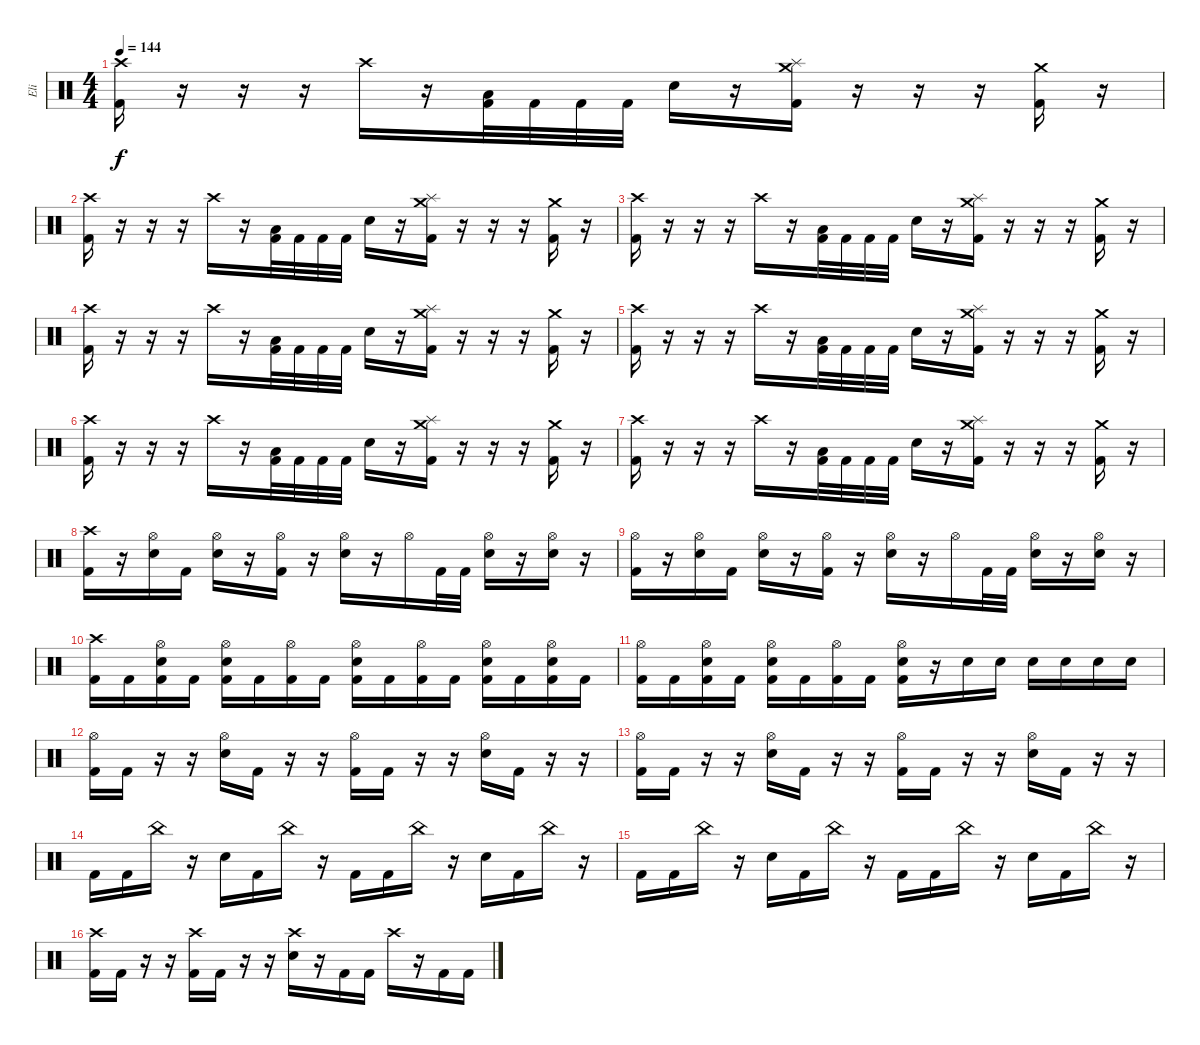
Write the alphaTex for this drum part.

\track ("Eli" "Eli") {instrument percussion}
\staff {score}
\articulation defaults
\ts (4 4)
\tempo 144
\clef neutral
\ks c
("Crash high (hit)" "Kick (hit) 2").16{dy f} r.16 r.16 r.16 "Crash high (hit)".16 r.16 ("Low Floor Tom (hit)" "Kick (hit) 2").32 "Kick (hit) 2".32 "Kick (hit) 2".32 "Kick (hit) 2".32 "Snare (hit) 2".16 r.16 ("Crash medium (hit)" "Splash (hit)" "Kick (hit) 2").16 r.16 r.16 r.16 ("Crash medium (hit)" "Kick (hit) 2").16 r.16 |
("Crash high (hit)" "Kick (hit) 2").16 r.16 r.16 r.16 "Crash high (hit)".16 r.16 ("Low Floor Tom (hit)" "Kick (hit) 2").32 "Kick (hit) 2".32 "Kick (hit) 2".32 "Kick (hit) 2".32 "Snare (hit) 2".16 r.16 ("Crash medium (hit)" "Splash (hit)" "Kick (hit) 2").16 r.16 r.16 r.16 ("Crash medium (hit)" "Kick (hit) 2").16 r.16 |
("Crash high (hit)" "Kick (hit) 2").16 r.16 r.16 r.16 "Crash high (hit)".16 r.16 ("Low Floor Tom (hit)" "Kick (hit) 2").32 "Kick (hit) 2".32 "Kick (hit) 2".32 "Kick (hit) 2".32 "Snare (hit) 2".16 r.16 ("Crash medium (hit)" "Splash (hit)" "Kick (hit) 2").16 r.16 r.16 r.16 ("Crash medium (hit)" "Kick (hit) 2").16 r.16 |
("Crash high (hit)" "Kick (hit) 2").16 r.16 r.16 r.16 "Crash high (hit)".16 r.16 ("Low Floor Tom (hit)" "Kick (hit) 2").32 "Kick (hit) 2".32 "Kick (hit) 2".32 "Kick (hit) 2".32 "Snare (hit) 2".16 r.16 ("Crash medium (hit)" "Splash (hit)" "Kick (hit) 2").16 r.16 r.16 r.16 ("Crash medium (hit)" "Kick (hit) 2").16 r.16 |
("Crash high (hit)" "Kick (hit) 2").16 r.16 r.16 r.16 "Crash high (hit)".16 r.16 ("Low Floor Tom (hit)" "Kick (hit) 2").32 "Kick (hit) 2".32 "Kick (hit) 2".32 "Kick (hit) 2".32 "Snare (hit) 2".16 r.16 ("Crash medium (hit)" "Splash (hit)" "Kick (hit) 2").16 r.16 r.16 r.16 ("Crash medium (hit)" "Kick (hit) 2").16 r.16 |
("Crash high (hit)" "Kick (hit) 2").16 r.16 r.16 r.16 "Crash high (hit)".16 r.16 ("Low Floor Tom (hit)" "Kick (hit) 2").32 "Kick (hit) 2".32 "Kick (hit) 2".32 "Kick (hit) 2".32 "Snare (hit) 2".16 r.16 ("Crash medium (hit)" "Splash (hit)" "Kick (hit) 2").16 r.16 r.16 r.16 ("Crash medium (hit)" "Kick (hit) 2").16 r.16 |
("Crash high (hit)" "Kick (hit) 2").16 r.16 r.16 r.16 "Crash high (hit)".16 r.16 ("Low Floor Tom (hit)" "Kick (hit) 2").32 "Kick (hit) 2".32 "Kick (hit) 2".32 "Kick (hit) 2".32 "Snare (hit) 2".16 r.16 ("Crash medium (hit)" "Splash (hit)" "Kick (hit) 2").16 r.16 r.16 r.16 ("Crash medium (hit)" "Kick (hit) 2").16 r.16 |
("Crash high (hit)" "Kick (hit) 2").16 r.16 ("Hi-Hat (open)" "Snare (hit) 2").16 "Kick (hit) 2".16 ("Hi-Hat (open)" "Snare (hit) 2").16 r.16 ("Hi-Hat (open)" "Kick (hit) 2").16 r.16 ("Hi-Hat (open)" "Snare (hit) 2").16 r.16 "Hi-Hat (open)".16 "Kick (hit) 2".32 "Kick (hit) 2".32 ("Hi-Hat (open)" "Snare (hit) 2").16 r.16 ("Hi-Hat (open)" "Snare (hit) 2").16 r.16 |
("Hi-Hat (open)" "Kick (hit) 2").16 r.16 ("Hi-Hat (open)" "Snare (hit) 2").16 "Kick (hit) 2".16 ("Hi-Hat (open)" "Snare (hit) 2").16 r.16 ("Hi-Hat (open)" "Kick (hit) 2").16 r.16 ("Hi-Hat (open)" "Snare (hit) 2").16 r.16 "Hi-Hat (open)".16 "Kick (hit) 2".32 "Kick (hit) 2".32 ("Hi-Hat (open)" "Snare (hit) 2").16 r.16 ("Hi-Hat (open)" "Snare (hit) 2").16 r.16 |
("Crash high (hit)" "Kick (hit) 2").16 "Kick (hit) 2".16 ("Hi-Hat (open)" "Snare (hit) 2" "Kick (hit) 2").16 "Kick (hit) 2".16 ("Hi-Hat (open)" "Snare (hit) 2" "Kick (hit) 2").16 "Kick (hit) 2".16 ("Hi-Hat (open)" "Kick (hit) 2").16 "Kick (hit) 2".16 ("Hi-Hat (open)" "Snare (hit) 2" "Kick (hit) 2").16 "Kick (hit) 2".16 ("Hi-Hat (open)" "Kick (hit) 2").16 "Kick (hit) 2".16 ("Hi-Hat (open)" "Snare (hit) 2" "Kick (hit) 2").16 "Kick (hit) 2".16 ("Hi-Hat (open)" "Snare (hit) 2" "Kick (hit) 2").16 "Kick (hit) 2".16 |
("Hi-Hat (open)" "Kick (hit) 2").16 "Kick (hit) 2".16 ("Hi-Hat (open)" "Snare (hit) 2" "Kick (hit) 2").16 "Kick (hit) 2".16 ("Hi-Hat (open)" "Snare (hit) 2" "Kick (hit) 2").16 "Kick (hit) 2".16 ("Hi-Hat (open)" "Kick (hit) 2").16 "Kick (hit) 2".16 ("Hi-Hat (open)" "Snare (hit) 2" "Kick (hit) 2").16 r.16 "Snare (hit) 2".16 "Snare (hit) 2".16 "Snare (hit) 2".16 "Snare (hit) 2".16 "Snare (hit) 2".16 "Snare (hit) 2".16 |
("Hi-Hat (open)" "Kick (hit) 2").16 "Kick (hit) 2".16 r.16 r.16 ("Hi-Hat (open)" "Snare (hit) 2").16 "Kick (hit) 2".16 r.16 r.16 ("Hi-Hat (open)" "Kick (hit) 2").16 "Kick (hit) 2".16 r.16 r.16 ("Hi-Hat (open)" "Snare (hit) 2").16 "Kick (hit) 2".16 r.16 r.16 |
("Hi-Hat (open)" "Kick (hit) 2").16 "Kick (hit) 2".16 r.16 r.16 ("Hi-Hat (open)" "Snare (hit) 2").16 "Kick (hit) 2".16 r.16 r.16 ("Hi-Hat (open)" "Kick (hit) 2").16 "Kick (hit) 2".16 r.16 r.16 ("Hi-Hat (open)" "Snare (hit) 2").16 "Kick (hit) 2".16 r.16 r.16 |
"Kick (hit) 2".16 "Kick (hit) 2".16 "China (hit)".16 r.16 "Snare (hit) 2".16 "Kick (hit) 2".16 "China (hit)".16 r.16 "Kick (hit) 2".16 "Kick (hit) 2".16 "China (hit)".16 r.16 "Snare (hit) 2".16 "Kick (hit) 2".16 "China (hit)".16 r.16 |
"Kick (hit) 2".16 "Kick (hit) 2".16 "China (hit)".16 r.16 "Snare (hit) 2".16 "Kick (hit) 2".16 "China (hit)".16 r.16 "Kick (hit) 2".16 "Kick (hit) 2".16 "China (hit)".16 r.16 "Snare (hit) 2".16 "Kick (hit) 2".16 "China (hit)".16 r.16 |
("Crash high (hit)" "Kick (hit) 2").16 "Kick (hit) 2".16 r.16 r.16 ("Crash high (hit)" "Kick (hit) 2").16 "Kick (hit) 2".16 r.16 r.16 ("Crash high (hit)" "Snare (hit) 2").16 r.16 "Kick (hit) 2".16 "Kick (hit) 2".16 "Crash high (hit)".16 r.16 "Kick (hit) 2".16 "Kick (hit) 2".16
